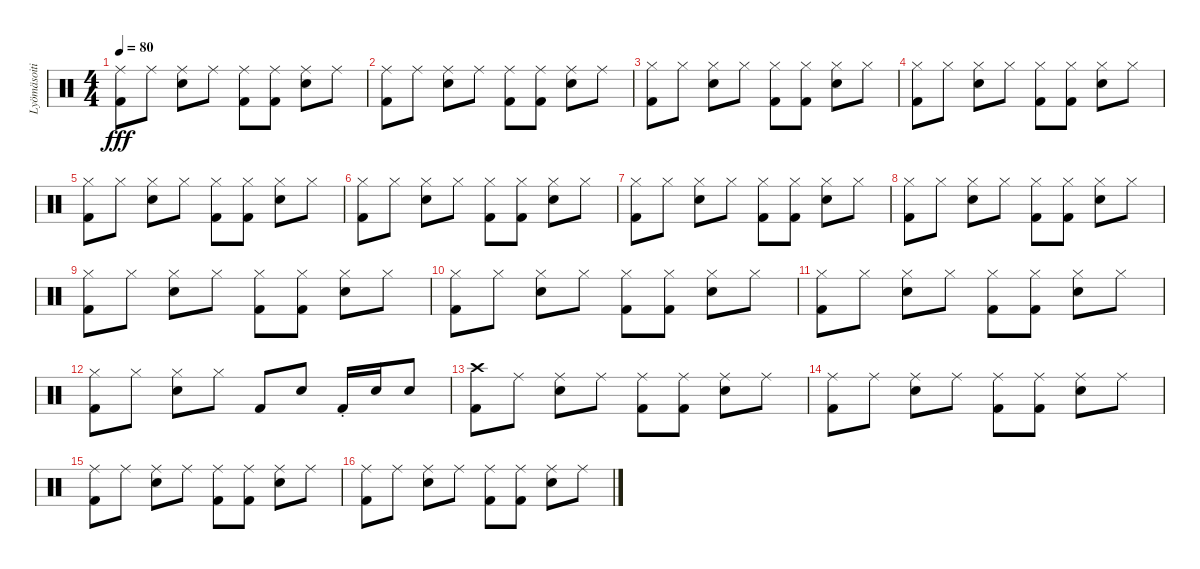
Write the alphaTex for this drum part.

\track ("Lyömäsoitin" "Lyömäsoiti") {instrument percussion}
\staff {score}
\articulation defaults
\ts (4 4)
\tempo 80
\clef neutral
\ks c
("Ride (middle)" "Kick (hit) 2").8{dy fff} "Ride (middle)".8 ("Ride (middle)" "Electric Snare (hit)").8 "Ride (middle)".8 ("Ride (middle)" "Kick (hit) 2").8 ("Ride (middle)" "Kick (hit) 2").8 ("Ride (middle)" "Electric Snare (hit)").8 "Ride (middle)".8 |
("Ride (middle)" "Kick (hit) 2").8 "Ride (middle)".8 ("Ride (middle)" "Electric Snare (hit)").8 "Ride (middle)".8 ("Ride (middle)" "Kick (hit) 2").8 ("Ride (middle)" "Kick (hit) 2").8 ("Ride (middle)" "Electric Snare (hit)").8 "Ride (middle)".8 |
("Hi-Hat (closed)" "Kick (hit) 2").8 "Hi-Hat (closed)".8 ("Hi-Hat (closed)" "Electric Snare (hit)").8 "Hi-Hat (closed)".8 ("Hi-Hat (closed)" "Kick (hit) 2").8 ("Hi-Hat (closed)" "Kick (hit) 2").8 ("Hi-Hat (closed)" "Electric Snare (hit)").8 "Hi-Hat (closed)".8 |
("Hi-Hat (closed)" "Kick (hit) 2").8 "Hi-Hat (closed)".8 ("Hi-Hat (closed)" "Electric Snare (hit)").8 "Hi-Hat (closed)".8 ("Hi-Hat (closed)" "Kick (hit) 2").8 ("Hi-Hat (closed)" "Kick (hit) 2").8 ("Hi-Hat (closed)" "Electric Snare (hit)").8 "Hi-Hat (closed)".8 |
("Hi-Hat (closed)" "Kick (hit) 2").8 "Hi-Hat (closed)".8 ("Hi-Hat (closed)" "Electric Snare (hit)").8 "Hi-Hat (closed)".8 ("Hi-Hat (closed)" "Kick (hit) 2").8 ("Hi-Hat (closed)" "Kick (hit) 2").8 ("Hi-Hat (closed)" "Electric Snare (hit)").8 "Hi-Hat (closed)".8 |
("Hi-Hat (closed)" "Kick (hit) 2").8 "Hi-Hat (closed)".8 ("Hi-Hat (closed)" "Electric Snare (hit)").8 "Hi-Hat (closed)".8 ("Hi-Hat (closed)" "Kick (hit) 2").8 ("Hi-Hat (closed)" "Kick (hit) 2").8 ("Hi-Hat (closed)" "Electric Snare (hit)").8 "Hi-Hat (closed)".8 |
("Hi-Hat (closed)" "Kick (hit) 2").8 "Hi-Hat (closed)".8 ("Hi-Hat (closed)" "Electric Snare (hit)").8 "Hi-Hat (closed)".8 ("Hi-Hat (closed)" "Kick (hit) 2").8 ("Hi-Hat (closed)" "Kick (hit) 2").8 ("Hi-Hat (closed)" "Electric Snare (hit)").8 "Hi-Hat (closed)".8 |
("Hi-Hat (closed)" "Kick (hit) 2").8 "Hi-Hat (closed)".8 ("Hi-Hat (closed)" "Electric Snare (hit)").8 "Hi-Hat (closed)".8 ("Hi-Hat (closed)" "Kick (hit) 2").8 ("Hi-Hat (closed)" "Kick (hit) 2").8 ("Hi-Hat (closed)" "Electric Snare (hit)").8 "Hi-Hat (closed)".8 |
("Hi-Hat (closed)" "Kick (hit) 2").8 "Hi-Hat (closed)".8 ("Hi-Hat (closed)" "Electric Snare (hit)").8 "Hi-Hat (closed)".8 ("Hi-Hat (closed)" "Kick (hit) 2").8 ("Hi-Hat (closed)" "Kick (hit) 2").8 ("Hi-Hat (closed)" "Electric Snare (hit)").8 "Hi-Hat (closed)".8 |
("Hi-Hat (closed)" "Kick (hit) 2").8 "Hi-Hat (closed)".8 ("Hi-Hat (closed)" "Electric Snare (hit)").8 "Hi-Hat (closed)".8 ("Hi-Hat (closed)" "Kick (hit) 2").8 ("Hi-Hat (closed)" "Kick (hit) 2").8 ("Hi-Hat (closed)" "Electric Snare (hit)").8 "Hi-Hat (closed)".8 |
("Hi-Hat (closed)" "Kick (hit) 2").8 "Hi-Hat (closed)".8 ("Hi-Hat (closed)" "Electric Snare (hit)").8 "Hi-Hat (closed)".8 ("Hi-Hat (closed)" "Kick (hit) 2").8 ("Hi-Hat (closed)" "Kick (hit) 2").8 ("Hi-Hat (closed)" "Electric Snare (hit)").8 "Hi-Hat (closed)".8 |
("Hi-Hat (closed)" "Kick (hit) 2").8 "Hi-Hat (closed)".8 ("Hi-Hat (closed)" "Electric Snare (hit)").8 "Hi-Hat (closed)".8 "Kick (hit) 2".8 "Electric Snare (hit)".8 "Kick (hit) 2"{st}.16 "Electric Snare (hit)".16 "Electric Snare (hit)".8 |
("Crash high (hit)" "Kick (hit) 2").8 "Ride (middle)".8 ("Ride (middle)" "Electric Snare (hit)").8 "Ride (middle)".8 ("Ride (middle)" "Kick (hit) 2").8 ("Ride (middle)" "Kick (hit) 2").8 ("Ride (middle)" "Electric Snare (hit)").8 "Ride (middle)".8 |
("Ride (middle)" "Kick (hit) 2").8 "Ride (middle)".8 ("Ride (middle)" "Electric Snare (hit)").8 "Ride (middle)".8 ("Ride (middle)" "Kick (hit) 2").8 ("Ride (middle)" "Kick (hit) 2").8 ("Ride (middle)" "Electric Snare (hit)").8 "Ride (middle)".8 |
("Ride (middle)" "Kick (hit) 2").8 "Ride (middle)".8 ("Ride (middle)" "Electric Snare (hit)").8 "Ride (middle)".8 ("Ride (middle)" "Kick (hit) 2").8 ("Ride (middle)" "Kick (hit) 2").8 ("Ride (middle)" "Electric Snare (hit)").8 "Ride (middle)".8 |
("Ride (middle)" "Kick (hit) 2").8 "Ride (middle)".8 ("Ride (middle)" "Electric Snare (hit)").8 "Ride (middle)".8 ("Ride (middle)" "Kick (hit) 2").8 ("Ride (middle)" "Kick (hit) 2").8 ("Ride (middle)" "Electric Snare (hit)").8 "Ride (middle)".8
